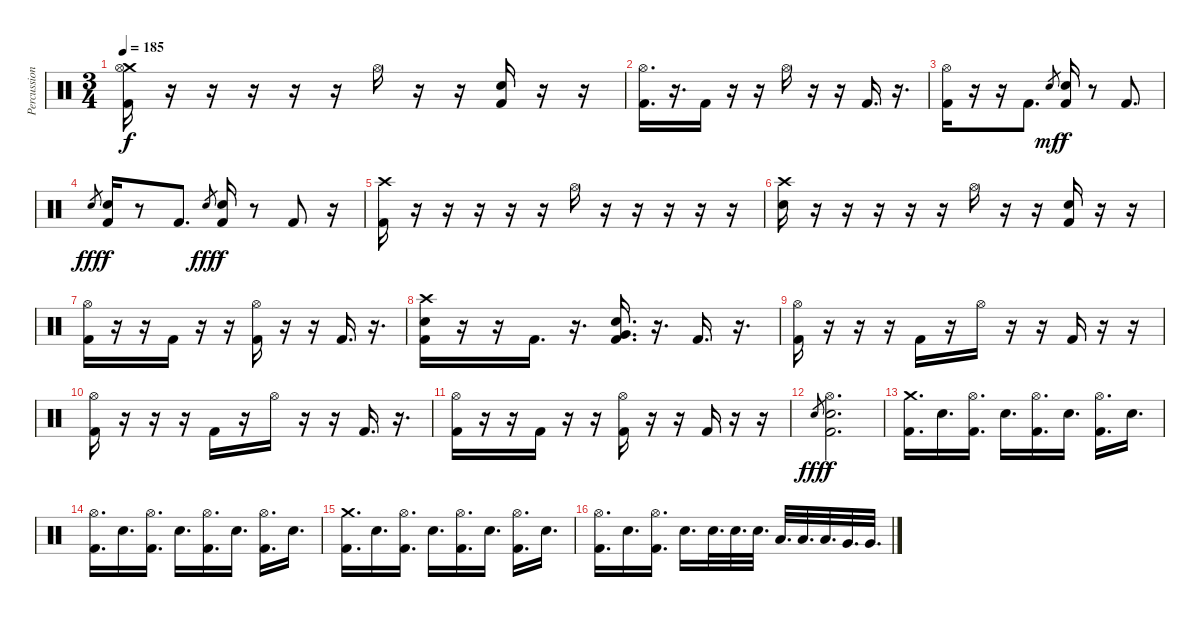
\track ("Percussion" "Percussion") {instrument percussion}
\staff {score}
\articulation defaults
\ts (3 4)
\tempo 185
\clef neutral
\ks c
("Crash medium (hit)" "Hi-Hat (open)" "Kick (hit) 2").16{dy f} r.16 r.16 r.16 r.16 r.16 "Hi-Hat (open)".16 r.16 r.16 ("Electric Snare (hit)" "Kick (hit) 2").16 r.16 r.16 |
("Hi-Hat (open)" "Kick (hit) 2").16{d} r.16{d} "Kick (hit) 2".16 r.16 r.16 "Hi-Hat (open)".16 r.16 r.16 "Kick (hit) 2".16{d} r.16{d} |
("Hi-Hat (open)" "Kick (hit) 2").16 r.16 r.16 "Kick (hit) 2".8{d} "Electric Snare (hit)".8{gr dy mf} ("Electric Snare (hit)" "Kick (hit) 2").16{dy f} r.8 "Kick (hit) 2".8{d} |
"Electric Snare (hit)".8{gr dy fff} ("Electric Snare (hit)" "Kick (hit) 2").16{dy f} r.8 "Kick (hit) 2".8{d} "Electric Snare (hit)".8{gr dy fff} ("Electric Snare (hit)" "Kick (hit) 2").16{dy f} r.8 "Kick (hit) 2".8 r.16 |
("Crash high (hit)" "Kick (hit) 2").16 r.16 r.16 r.16 r.16 r.16 "Hi-Hat (open)".16 r.16 r.16 r.16 r.16 r.16 |
("Crash high (hit)" "Electric Snare (hit)").16 r.16 r.16 r.16 r.16 r.16 "Hi-Hat (open)".16 r.16 r.16 ("Electric Snare (hit)" "Kick (hit) 2").16 r.16 r.16 |
("Hi-Hat (open)" "Kick (hit) 2").16 r.16 r.16 "Kick (hit) 2".16 r.16 r.16 ("Hi-Hat (open)" "Kick (hit) 2").16 r.16 r.16 "Kick (hit) 2".16{d} r.16{d} |
("Crash high (hit)" "Electric Snare (hit)" "Kick (hit) 2").16 r.16 r.16 "Kick (hit) 2".16{d} r.16{d} ("Very Low Tom (hit)" "Electric Snare (hit)" "Kick (hit) 2").16{d} r.16{d} "Kick (hit) 2".16{d} r.16{d} |
("Hi-Hat (open)" "Kick (hit) 2").16 r.16 r.16 r.16 "Kick (hit) 2".16 r.16 "Hi-Hat (open)".16 r.16 r.16 "Kick (hit) 2".16 r.16 r.16 |
("Hi-Hat (open)" "Kick (hit) 2").16 r.16 r.16 r.16 "Kick (hit) 2".16 r.16 "Hi-Hat (open)".16 r.16 r.16 "Kick (hit) 2".16{d} r.16{d} |
("Hi-Hat (open)" "Kick (hit) 2").16 r.16 r.16 "Kick (hit) 2".16 r.16 r.16 ("Hi-Hat (open)" "Kick (hit) 2").16 r.16 r.16 "Kick (hit) 2".16 r.16 r.16 |
"Electric Snare (hit)".8{gr dy fff} ("Hi-Hat (open)" "Electric Snare (hit)" "Kick (hit) 2").2{d dy f} |
("Crash medium (hit)" "Kick (hit) 2").16{d} "Electric Snare (hit)".16{d} ("Hi-Hat (open)" "Kick (hit) 2").16{d} "Electric Snare (hit)".16{d} ("Hi-Hat (open)" "Kick (hit) 2").16{d} "Electric Snare (hit)".16{d} ("Hi-Hat (open)" "Kick (hit) 2").16{d} "Electric Snare (hit)".16{d} |
("Hi-Hat (open)" "Kick (hit) 2").16{d} "Electric Snare (hit)".16{d} ("Hi-Hat (open)" "Kick (hit) 2").16{d} "Electric Snare (hit)".16{d} ("Hi-Hat (open)" "Kick (hit) 2").16{d} "Electric Snare (hit)".16{d} ("Hi-Hat (open)" "Kick (hit) 2").16{d} "Electric Snare (hit)".16{d} |
("Crash medium (hit)" "Kick (hit) 2").16{d} "Electric Snare (hit)".16{d} ("Hi-Hat (open)" "Kick (hit) 2").16{d} "Electric Snare (hit)".16{d} ("Hi-Hat (open)" "Kick (hit) 2").16{d} "Electric Snare (hit)".16{d} ("Hi-Hat (open)" "Kick (hit) 2").16{d} "Electric Snare (hit)".16{d} |
("Hi-Hat (open)" "Kick (hit) 2").16{d} "Electric Snare (hit)".16{d} ("Hi-Hat (open)" "Kick (hit) 2").16{d} "Electric Snare (hit)".16{d} "Electric Snare (hit)".32{d} "Electric Snare (hit)".32{d} "Electric Snare (hit)".32{d} "Low Tom (hit)".32{d} "Low Tom (hit)".32{d} "Low Tom (hit)".32{d} "Very Low Tom (hit)".32{d} "Very Low Tom (hit)".32{d}
